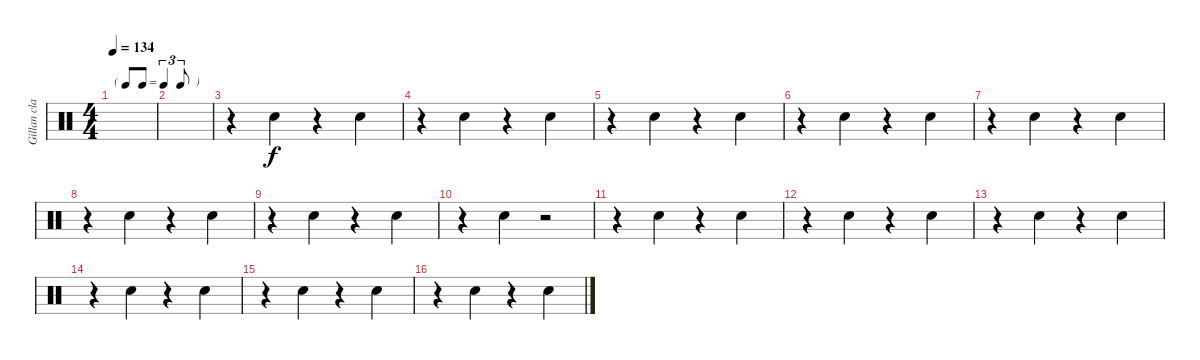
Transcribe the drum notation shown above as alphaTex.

\track ("Gillan claps along" "Gillan cla") {instrument percussion}
\staff {score}
\articulation defaults
\ts (4 4)
\tf triplet8th
\tempo 134
\clef neutral
\ks c
|
|
r.4 "Hand Clap (hit)".4 r.4 "Hand Clap (hit)".4 |
r.4 "Hand Clap (hit)".4 r.4 "Hand Clap (hit)".4 |
r.4 "Hand Clap (hit)".4 r.4 "Hand Clap (hit)".4 |
r.4 "Hand Clap (hit)".4 r.4 "Hand Clap (hit)".4 |
r.4 "Hand Clap (hit)".4 r.4 "Hand Clap (hit)".4 |
r.4 "Hand Clap (hit)".4 r.4 "Hand Clap (hit)".4 |
r.4 "Hand Clap (hit)".4 r.4 "Hand Clap (hit)".4 |
r.4 "Hand Clap (hit)".4 r.2 |
r.4 "Hand Clap (hit)".4 r.4 "Hand Clap (hit)".4 |
r.4 "Hand Clap (hit)".4 r.4 "Hand Clap (hit)".4 |
r.4 "Hand Clap (hit)".4 r.4 "Hand Clap (hit)".4 |
r.4 "Hand Clap (hit)".4 r.4 "Hand Clap (hit)".4 |
r.4 "Hand Clap (hit)".4 r.4 "Hand Clap (hit)".4 |
r.4 "Hand Clap (hit)".4 r.4 "Hand Clap (hit)".4
